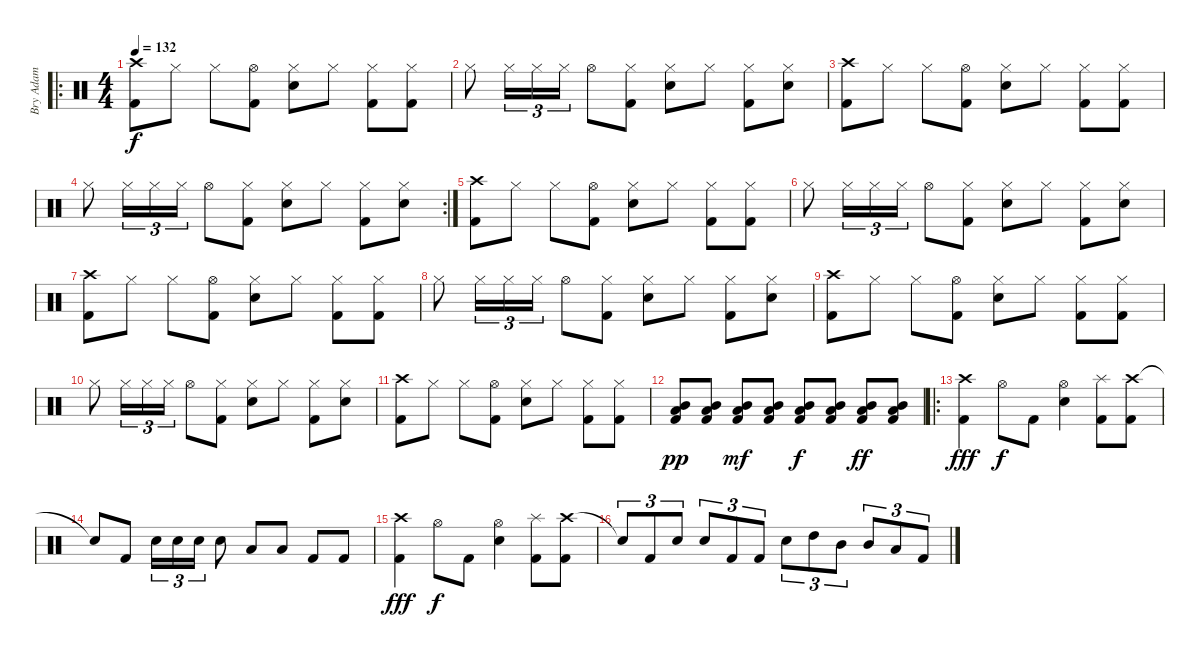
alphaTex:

\track ("Bry Adam" "Bry Adam") {instrument percussion}
\staff {score}
\articulation defaults
\ro
\ts (4 4)
\tempo 132
\clef neutral
\ks c
("Crash high (hit)" "Kick (hit) 2").8{dy f} "Hi-Hat (closed)".8 "Hi-Hat (closed)".8 ("Hi-Hat (open)" "Kick (hit) 2").8 ("Hi-Hat (closed)" "Snare (hit) 2").8 "Hi-Hat (closed)".8 ("Hi-Hat (closed)" "Kick (hit) 2").8 ("Hi-Hat (closed)" "Kick (hit) 2").8 |
"Hi-Hat (closed)".8 "Hi-Hat (closed)".16{tu (3 2)} "Hi-Hat (closed)".16{tu (3 2)} "Hi-Hat (closed)".16{tu (3 2)} "Hi-Hat (open)".8 ("Hi-Hat (closed)" "Kick (hit) 2").8 ("Hi-Hat (closed)" "Snare (hit) 2").8 "Hi-Hat (closed)".8 ("Hi-Hat (closed)" "Kick (hit) 2").8 ("Hi-Hat (closed)" "Snare (hit) 2").8 |
("Crash high (hit)" "Kick (hit) 2").8 "Hi-Hat (closed)".8 "Hi-Hat (closed)".8 ("Hi-Hat (open)" "Kick (hit) 2").8 ("Hi-Hat (closed)" "Snare (hit) 2").8 "Hi-Hat (closed)".8 ("Hi-Hat (closed)" "Kick (hit) 2").8 ("Hi-Hat (closed)" "Kick (hit) 2").8 |
\rc 2 "Hi-Hat (closed)".8 "Hi-Hat (closed)".16{tu (3 2)} "Hi-Hat (closed)".16{tu (3 2)} "Hi-Hat (closed)".16{tu (3 2)} "Hi-Hat (open)".8
("Hi-Hat (closed)" "Kick (hit) 2").8 ("Hi-Hat (closed)" "Snare (hit) 2").8 "Hi-Hat (closed)".8 ("Hi-Hat (closed)" "Kick (hit) 2").8 ("Hi-Hat (closed)" "Snare (hit) 2").8 |
("Crash high (hit)" "Kick (hit) 2").8 "Hi-Hat (closed)".8 "Hi-Hat (closed)".8 ("Hi-Hat (open)" "Kick (hit) 2").8 ("Hi-Hat (closed)" "Snare (hit) 2").8 "Hi-Hat (closed)".8 ("Hi-Hat (closed)" "Kick (hit) 2").8 ("Hi-Hat (closed)" "Kick (hit) 2").8 |
"Hi-Hat (closed)".8 "Hi-Hat (closed)".16{tu (3 2)} "Hi-Hat (closed)".16{tu (3 2)} "Hi-Hat (closed)".16{tu (3 2)} "Hi-Hat (open)".8 ("Hi-Hat (closed)" "Kick (hit) 2").8 ("Hi-Hat (closed)" "Snare (hit) 2").8 "Hi-Hat (closed)".8 ("Hi-Hat (closed)" "Kick (hit) 2").8 ("Hi-Hat (closed)" "Snare (hit) 2").8 |
("Crash high (hit)" "Kick (hit) 2").8 "Hi-Hat (closed)".8 "Hi-Hat (closed)".8 ("Hi-Hat (open)" "Kick (hit) 2").8 ("Hi-Hat (closed)" "Snare (hit) 2").8 "Hi-Hat (closed)".8 ("Hi-Hat (closed)" "Kick (hit) 2").8 ("Hi-Hat (closed)" "Kick (hit) 2").8 |
"Hi-Hat (closed)".8 "Hi-Hat (closed)".16{tu (3 2)} "Hi-Hat (closed)".16{tu (3 2)} "Hi-Hat (closed)".16{tu (3 2)} "Hi-Hat (open)".8 ("Hi-Hat (closed)" "Kick (hit) 2").8 ("Hi-Hat (closed)" "Snare (hit) 2").8 "Hi-Hat (closed)".8 ("Hi-Hat (closed)" "Kick (hit) 2").8 ("Hi-Hat (closed)" "Snare (hit) 2").8 |
("Crash high (hit)" "Kick (hit) 2").8 "Hi-Hat (closed)".8 "Hi-Hat (closed)".8 ("Hi-Hat (open)" "Kick (hit) 2").8 ("Hi-Hat (closed)" "Snare (hit) 2").8 "Hi-Hat (closed)".8 ("Hi-Hat (closed)" "Kick (hit) 2").8 ("Hi-Hat (closed)" "Kick (hit) 2").8 |
"Hi-Hat (closed)".8 "Hi-Hat (closed)".16{tu (3 2)} "Hi-Hat (closed)".16{tu (3 2)} "Hi-Hat (closed)".16{tu (3 2)} "Hi-Hat (open)".8 ("Hi-Hat (closed)" "Kick (hit) 2").8 ("Hi-Hat (closed)" "Snare (hit) 2").8 "Hi-Hat (closed)".8 ("Hi-Hat (closed)" "Kick (hit) 2").8 ("Hi-Hat (closed)" "Snare (hit) 2").8 |
("Crash high (hit)" "Kick (hit) 2").8 "Hi-Hat (closed)".8 "Hi-Hat (closed)".8 ("Hi-Hat (open)" "Kick (hit) 2").8 ("Hi-Hat (closed)" "Snare (hit) 2").8 "Hi-Hat (closed)".8 ("Hi-Hat (closed)" "Kick (hit) 2").8 ("Hi-Hat (closed)" "Kick (hit) 2").8 |
("Mid Tom (hit)" "Low Tom (hit)" "Kick (hit) 2").8{dy pp} ("Mid Tom (hit)" "Low Tom (hit)" "Kick (hit) 2").8 ("Mid Tom (hit)" "Low Tom (hit)" "Kick (hit) 2").8{dy mf} ("Mid Tom (hit)" "Low Tom (hit)" "Kick (hit) 2").8 ("Mid Tom (hit)" "Low Tom (hit)" "Kick (hit) 2").8{dy f} ("Mid Tom (hit)" "Low Tom (hit)" "Kick (hit) 2").8 ("Mid Tom (hit)" "Low Tom (hit)" "Kick (hit) 2").8{dy ff} ("Mid Tom (hit)" "Low Tom (hit)" "Kick (hit) 2").8 |
\ro
("Crash high (hit)" "Kick (hit) 2").4{dy fff} "Hi-Hat (open)".8{dy f} "Kick (hit) 2".8 ("Hi-Hat (open)" "Snare (hit) 2").4 ("Splash (hit)" "Kick (hit) 2").8 ("Crash high (hit)" "Kick (hit) 2").8 |
"Snare (hit)"{t}.8 "Kick (hit) 2".8 "Snare (hit) 2".16{tu (3 2)} "Snare (hit) 2".16{tu (3 2)} "Snare (hit) 2".16{tu (3 2)} "Snare (hit) 2".8 "Low Tom (hit)".8 "Low Tom (hit)".8 "Kick (hit) 2".8 "Kick (hit) 2".8 |
("Crash high (hit)" "Kick (hit) 2").4{dy fff} "Hi-Hat (open)".8{dy f} "Kick (hit) 2".8 ("Hi-Hat (open)" "Snare (hit) 2").4 ("Splash (hit)" "Kick (hit) 2").8 ("Crash high (hit)" "Kick (hit) 2").8 |
"Snare (hit)"{t}.8{tu (3 2)} "Kick (hit) 2".8{tu (3 2)} "Snare (hit) 2".8{tu (3 2)} "Snare (hit) 2".8{tu (3 2)} "Kick (hit) 2".8{tu (3 2)} "Kick (hit) 2".8{tu (3 2)} "Snare (hit) 2".8{tu (3 2)} "High Tom (hit)".8{tu (3 2)} "Mid Tom (hit)".8{tu (3 2)} "Mid Tom (hit)".8{tu (3 2)} "Low Tom (hit)".8{tu (3 2)} "Kick (hit) 2".8{tu (3 2)}
